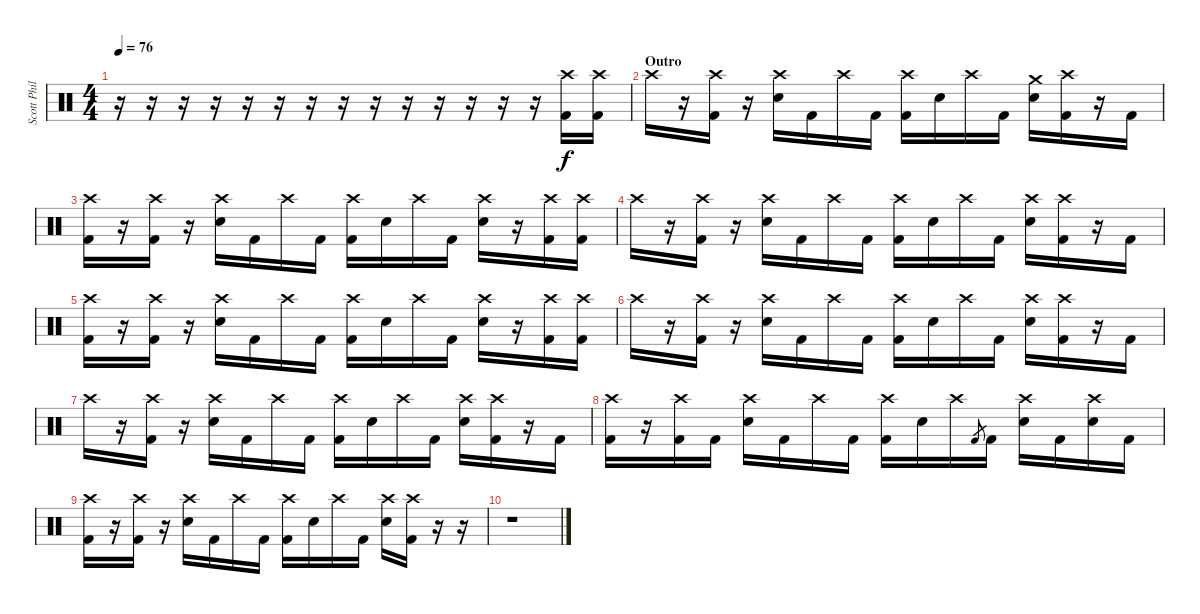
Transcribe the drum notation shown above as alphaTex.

\track ("Scott Phillips - Drums" "Scott Phil") {instrument percussion}
\staff {score}
\articulation defaults
\ts (4 4)
\tempo 76
\clef neutral
\ks c
r.16{dy f} r.16 r.16 r.16 r.16 r.16 r.16 r.16 r.16 r.16 r.16 r.16 r.16 r.16 ("Crash high (hit)" "Kick (hit) 2").16 ("Crash high (hit)" "Kick (hit) 2").16 |
\section ("" "Outro")
"Crash high (hit)".16 r.16 ("Crash high (hit)" "Kick (hit) 2").16 r.16 ("Crash high (hit)" "Snare (hit) 2").16 "Kick (hit) 2".16 "Crash high (hit)".16 "Kick (hit) 2".16 ("Crash high (hit)" "Kick (hit) 2").16 "Snare (hit) 2".16 "Crash high (hit)".16 "Kick (hit) 2".16 ("Crash medium (hit)" "Snare (hit) 2").16 ("Crash high (hit)" "Kick (hit) 2").16 r.16 "Kick (hit) 2".16 |
("Crash high (hit)" "Kick (hit) 2").16 r.16 ("Crash high (hit)" "Kick (hit) 2").16 r.16 ("Crash high (hit)" "Snare (hit) 2").16 "Kick (hit) 2".16 "Crash high (hit)".16 "Kick (hit) 2".16 ("Crash high (hit)" "Kick (hit) 2").16 "Snare (hit) 2".16 "Crash high (hit)".16 "Kick (hit) 2".16 ("Crash high (hit)" "Snare (hit) 2").16 r.16 ("Crash high (hit)" "Kick (hit) 2").16 ("Crash high (hit)" "Kick (hit) 2").16 |
"Crash high (hit)".16 r.16 ("Crash high (hit)" "Kick (hit) 2").16 r.16 ("Crash high (hit)" "Snare (hit) 2").16 "Kick (hit) 2".16 "Crash high (hit)".16 "Kick (hit) 2".16 ("Crash high (hit)" "Kick (hit) 2").16 "Snare (hit) 2".16 "Crash high (hit)".16 "Kick (hit) 2".16 ("Crash high (hit)" "Snare (hit) 2").16 ("Crash high (hit)" "Kick (hit) 2").16 r.16 "Kick (hit) 2".16 |
("Crash high (hit)" "Kick (hit) 2").16 r.16 ("Crash high (hit)" "Kick (hit) 2").16 r.16 ("Crash high (hit)" "Snare (hit) 2").16 "Kick (hit) 2".16 "Crash high (hit)".16 "Kick (hit) 2".16 ("Crash high (hit)" "Kick (hit) 2").16 "Snare (hit) 2".16 "Crash high (hit)".16 "Kick (hit) 2".16 ("Crash high (hit)" "Snare (hit) 2").16 r.16 ("Crash high (hit)" "Kick (hit) 2").16 ("Crash high (hit)" "Kick (hit) 2").16 |
"Crash high (hit)".16 r.16 ("Crash high (hit)" "Kick (hit) 2").16 r.16 ("Crash high (hit)" "Snare (hit) 2").16 "Kick (hit) 2".16 "Crash high (hit)".16 "Kick (hit) 2".16 ("Crash high (hit)" "Kick (hit) 2").16 "Snare (hit) 2".16 "Crash high (hit)".16 "Kick (hit) 2".16 ("Crash high (hit)" "Snare (hit) 2").16 ("Crash high (hit)" "Kick (hit) 2").16 r.16 "Kick (hit) 2".16 |
"Crash high (hit)".16 r.16 ("Crash high (hit)" "Kick (hit) 2").16 r.16 ("Crash high (hit)" "Snare (hit) 2").16 "Kick (hit) 2".16 "Crash high (hit)".16 "Kick (hit) 2".16 ("Crash high (hit)" "Kick (hit) 2").16 "Snare (hit) 2".16 "Crash high (hit)".16 "Kick (hit) 2".16 ("Crash high (hit)" "Snare (hit) 2").16 ("Crash high (hit)" "Kick (hit) 2").16 r.16 "Kick (hit) 2".16 |
("Crash high (hit)" "Kick (hit) 2").16 r.16 ("Crash high (hit)" "Kick (hit) 2").16 "Kick (hit) 2".16 ("Crash high (hit)" "Snare (hit) 2").16 "Kick (hit) 2".16 "Crash high (hit)".16 "Kick (hit) 2".16 ("Crash high (hit)" "Kick (hit) 2").16 "Snare (hit) 2".16 "Crash high (hit)".16 "Kick (hit) 2".8{gr} "Kick (hit) 2".16 ("Crash high (hit)" "Snare (hit) 2").16 "Kick (hit) 2".16 ("Crash high (hit)" "Snare (hit) 2").16 "Kick (hit) 2".16 |
("Crash high (hit)" "Kick (hit) 2").16 r.16 ("Crash high (hit)" "Kick (hit) 2").16 r.16 ("Crash high (hit)" "Snare (hit) 2").16 "Kick (hit) 2".16 "Crash high (hit)".16 "Kick (hit) 2".16 ("Crash high (hit)" "Kick (hit) 2").16 "Snare (hit) 2".16 "Crash high (hit)".16 "Kick (hit) 2".16 ("Crash high (hit)" "Snare (hit) 2").16 ("Crash high (hit)" "Kick (hit) 2").16 r.16 r.16 |
r.1
